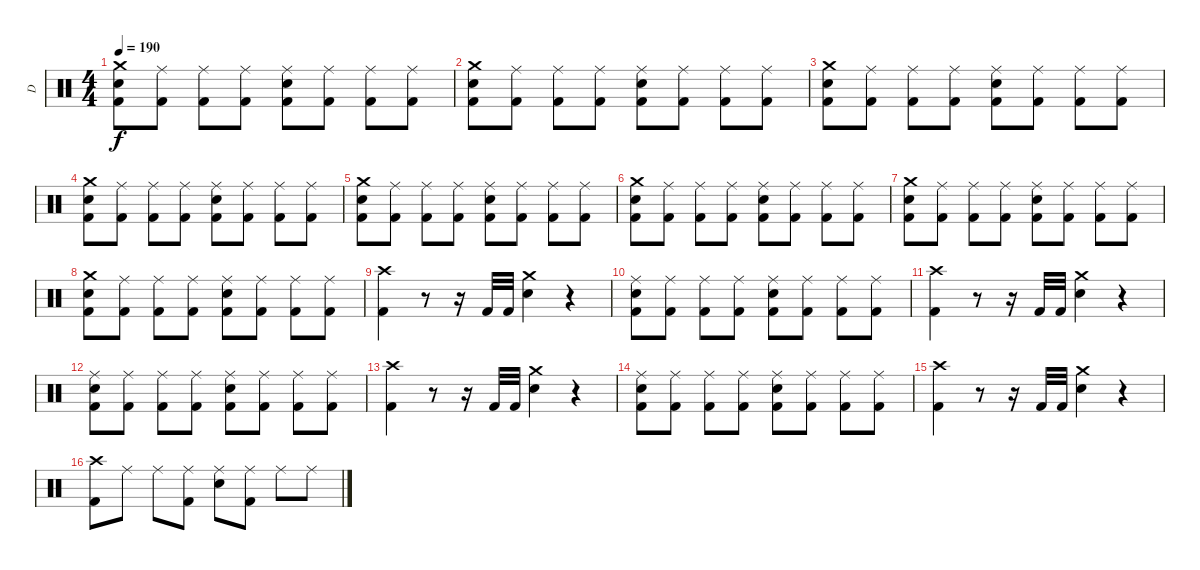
\track ("D" "D") {instrument percussion}
\staff {score}
\articulation defaults
\ts (4 4)
\tempo 190
\clef neutral
\ks c
("Kick (hit) 2" "Crash medium (hit)" "Electric Snare (hit)").8{dy f} ("Kick (hit) 2" "Ride (middle)").8 ("Kick (hit) 2" "Ride (middle)").8 ("Kick (hit) 2" "Ride (middle)").8 ("Kick (hit) 2" "Ride (middle)" "Electric Snare (hit)").8 ("Kick (hit) 2" "Ride (middle)").8 ("Kick (hit) 2" "Ride (middle)").8 ("Kick (hit) 2" "Ride (middle)").8 |
("Kick (hit) 2" "Crash medium (hit)" "Electric Snare (hit)").8 ("Kick (hit) 2" "Ride (middle)").8 ("Kick (hit) 2" "Ride (middle)").8 ("Kick (hit) 2" "Ride (middle)").8 ("Kick (hit) 2" "Ride (middle)" "Electric Snare (hit)").8 ("Kick (hit) 2" "Ride (middle)").8 ("Kick (hit) 2" "Ride (middle)").8 ("Kick (hit) 2" "Ride (middle)").8 |
("Kick (hit) 2" "Crash medium (hit)" "Electric Snare (hit)").8 ("Kick (hit) 2" "Ride (middle)").8 ("Kick (hit) 2" "Ride (middle)").8 ("Kick (hit) 2" "Ride (middle)").8 ("Kick (hit) 2" "Ride (middle)" "Electric Snare (hit)").8 ("Kick (hit) 2" "Ride (middle)").8 ("Kick (hit) 2" "Ride (middle)").8 ("Kick (hit) 2" "Ride (middle)").8 |
("Kick (hit) 2" "Crash medium (hit)" "Electric Snare (hit)").8 ("Kick (hit) 2" "Ride (middle)").8 ("Kick (hit) 2" "Ride (middle)").8 ("Kick (hit) 2" "Ride (middle)").8 ("Kick (hit) 2" "Ride (middle)" "Electric Snare (hit)").8 ("Kick (hit) 2" "Ride (middle)").8 ("Kick (hit) 2" "Ride (middle)").8 ("Kick (hit) 2" "Ride (middle)").8 |
("Kick (hit) 2" "Crash medium (hit)" "Electric Snare (hit)").8 ("Kick (hit) 2" "Ride (middle)").8 ("Kick (hit) 2" "Ride (middle)").8 ("Kick (hit) 2" "Ride (middle)").8 ("Kick (hit) 2" "Ride (middle)" "Electric Snare (hit)").8 ("Kick (hit) 2" "Ride (middle)").8 ("Kick (hit) 2" "Ride (middle)").8 ("Kick (hit) 2" "Ride (middle)").8 |
("Kick (hit) 2" "Crash medium (hit)" "Electric Snare (hit)").8 ("Kick (hit) 2" "Ride (middle)").8 ("Kick (hit) 2" "Ride (middle)").8 ("Kick (hit) 2" "Ride (middle)").8 ("Kick (hit) 2" "Ride (middle)" "Electric Snare (hit)").8 ("Kick (hit) 2" "Ride (middle)").8 ("Kick (hit) 2" "Ride (middle)").8 ("Kick (hit) 2" "Ride (middle)").8 |
("Kick (hit) 2" "Crash medium (hit)" "Electric Snare (hit)").8 ("Kick (hit) 2" "Ride (middle)").8 ("Kick (hit) 2" "Ride (middle)").8 ("Kick (hit) 2" "Ride (middle)").8 ("Kick (hit) 2" "Ride (middle)" "Electric Snare (hit)").8 ("Kick (hit) 2" "Ride (middle)").8 ("Kick (hit) 2" "Ride (middle)").8 ("Kick (hit) 2" "Ride (middle)").8 |
("Kick (hit) 2" "Crash medium (hit)" "Electric Snare (hit)").8 ("Kick (hit) 2" "Ride (middle)").8 ("Kick (hit) 2" "Ride (middle)").8 ("Kick (hit) 2" "Ride (middle)").8 ("Kick (hit) 2" "Ride (middle)" "Electric Snare (hit)").8 ("Kick (hit) 2" "Ride (middle)").8 ("Kick (hit) 2" "Ride (middle)").8 ("Kick (hit) 2" "Ride (middle)").8 |
("Crash high (hit)" "Kick (hit) 2").4 r.8 r.16 "Kick (hit) 2".32 "Kick (hit) 2".32 ("Crash medium (hit)" "Electric Snare (hit)").4 r.4 |
("Ride (middle)" "Electric Snare (hit)" "Kick (hit) 2").8 ("Ride (middle)" "Kick (hit) 2").8 ("Ride (middle)" "Kick (hit) 2").8 ("Ride (middle)" "Kick (hit) 2").8 ("Ride (middle)" "Electric Snare (hit)" "Kick (hit) 2").8 ("Ride (middle)" "Kick (hit) 2").8 ("Ride (middle)" "Kick (hit) 2").8 ("Ride (middle)" "Kick (hit) 2").8 |
("Crash high (hit)" "Kick (hit) 2").4 r.8 r.16 "Kick (hit) 2".32 "Kick (hit) 2".32 ("Crash medium (hit)" "Electric Snare (hit)").4 r.4 |
("Ride (middle)" "Electric Snare (hit)" "Kick (hit) 2").8 ("Ride (middle)" "Kick (hit) 2").8 ("Ride (middle)" "Kick (hit) 2").8 ("Ride (middle)" "Kick (hit) 2").8 ("Ride (middle)" "Electric Snare (hit)" "Kick (hit) 2").8 ("Ride (middle)" "Kick (hit) 2").8 ("Ride (middle)" "Kick (hit) 2").8 ("Ride (middle)" "Kick (hit) 2").8 |
("Crash high (hit)" "Kick (hit) 2").4 r.8 r.16 "Kick (hit) 2".32 "Kick (hit) 2".32 ("Crash medium (hit)" "Electric Snare (hit)").4 r.4 |
("Ride (middle)" "Electric Snare (hit)" "Kick (hit) 2").8 ("Ride (middle)" "Kick (hit) 2").8 ("Ride (middle)" "Kick (hit) 2").8 ("Ride (middle)" "Kick (hit) 2").8 ("Ride (middle)" "Electric Snare (hit)" "Kick (hit) 2").8 ("Ride (middle)" "Kick (hit) 2").8 ("Ride (middle)" "Kick (hit) 2").8 ("Ride (middle)" "Kick (hit) 2").8 |
("Crash high (hit)" "Kick (hit) 2").4 r.8 r.16 "Kick (hit) 2".32 "Kick (hit) 2".32 ("Crash medium (hit)" "Electric Snare (hit)").4 r.4 |
("Crash high (hit)" "Kick (hit) 2").8 "Ride (middle)".8 "Ride (middle)".8 ("Ride (middle)" "Kick (hit) 2").8 ("Ride (middle)" "Electric Snare (hit)").8 ("Ride (middle)" "Kick (hit) 2").8 "Ride (middle)".8 "Ride (middle)".8
